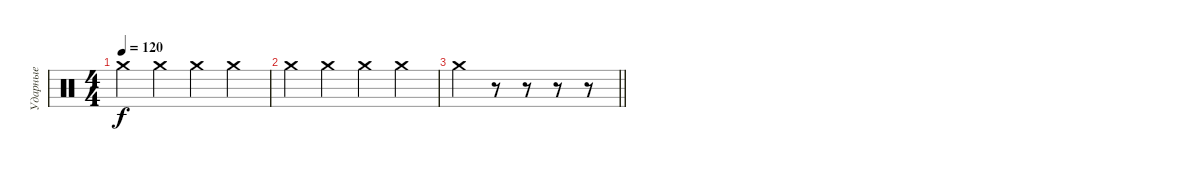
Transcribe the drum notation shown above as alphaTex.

\track ("Ударные" "Ударные") {instrument percussion}
\staff {score}
\articulation defaults
\ts (4 4)
\tempo 120
\clef neutral
\ks c "Crash medium (hit)".4{dy f} "Crash medium (hit)".4 "Crash medium (hit)".4 "Crash medium (hit)".4
|
"Crash medium (hit)".4 "Crash medium (hit)".4 "Crash medium (hit)".4 "Crash medium (hit)".4 |
\barLineRight lightlight "Crash medium (hit)".4
r.8 r.8 r.8 r.8
